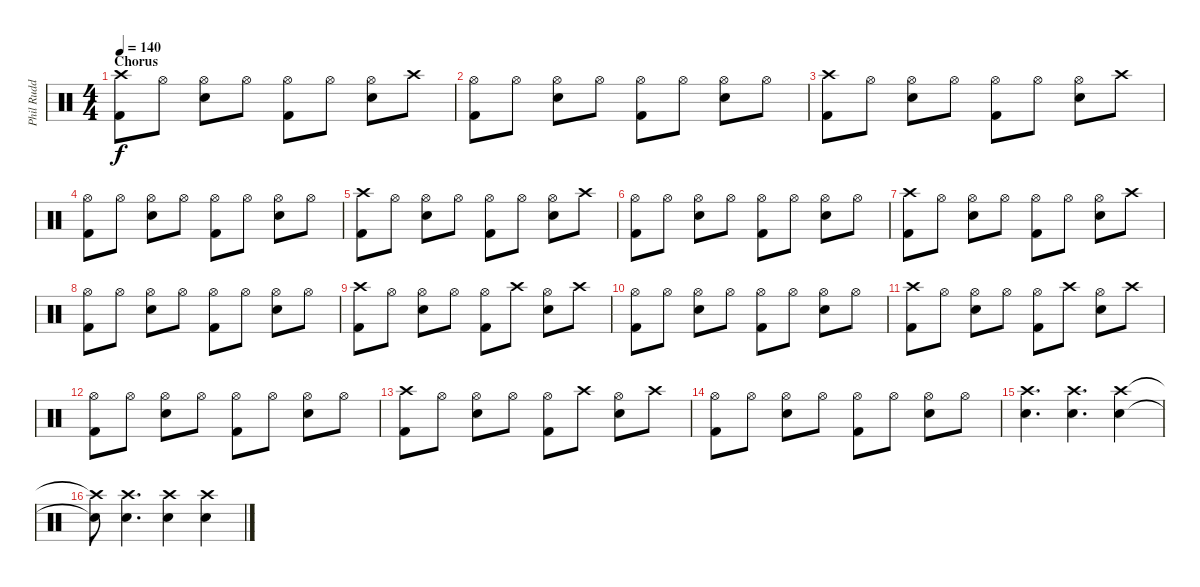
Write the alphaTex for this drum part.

\track ("Phil Rudd" "Phil Rudd") {instrument percussion}
\staff {score}
\articulation defaults
\ts (4 4)
\section ("" "Chorus")
\tempo 140
\clef neutral
\ks c
("Crash high (hit)" "Kick (hit) 2").8{dy f} "Hi-Hat (open)".8 ("Hi-Hat (open)" "Snare (hit) 2").8 "Hi-Hat (open)".8 ("Hi-Hat (open)" "Kick (hit) 2").8 "Hi-Hat (open)".8 ("Hi-Hat (open)" "Snare (hit) 2").8 "Crash high (hit)".8 |
("Hi-Hat (open)" "Kick (hit) 2").8 "Hi-Hat (open)".8 ("Hi-Hat (open)" "Snare (hit) 2").8 "Hi-Hat (open)".8 ("Hi-Hat (open)" "Kick (hit) 2").8 "Hi-Hat (open)".8 ("Hi-Hat (open)" "Snare (hit) 2").8 "Hi-Hat (open)".8 |
("Crash high (hit)" "Kick (hit) 2").8 "Hi-Hat (open)".8 ("Hi-Hat (open)" "Snare (hit) 2").8 "Hi-Hat (open)".8 ("Hi-Hat (open)" "Kick (hit) 2").8 "Hi-Hat (open)".8 ("Hi-Hat (open)" "Snare (hit) 2").8 "Crash high (hit)".8 |
("Hi-Hat (open)" "Kick (hit) 2").8 "Hi-Hat (open)".8 ("Hi-Hat (open)" "Snare (hit) 2").8 "Hi-Hat (open)".8 ("Hi-Hat (open)" "Kick (hit) 2").8 "Hi-Hat (open)".8 ("Hi-Hat (open)" "Snare (hit) 2").8 "Hi-Hat (open)".8 |
("Crash high (hit)" "Kick (hit) 2").8 "Hi-Hat (open)".8 ("Hi-Hat (open)" "Snare (hit) 2").8 "Hi-Hat (open)".8 ("Hi-Hat (open)" "Kick (hit) 2").8 "Hi-Hat (open)".8 ("Hi-Hat (open)" "Snare (hit) 2").8 "Crash high (hit)".8 |
("Hi-Hat (open)" "Kick (hit) 2").8 "Hi-Hat (open)".8 ("Hi-Hat (open)" "Snare (hit) 2").8 "Hi-Hat (open)".8 ("Hi-Hat (open)" "Kick (hit) 2").8 "Hi-Hat (open)".8 ("Hi-Hat (open)" "Snare (hit) 2").8 "Hi-Hat (open)".8 |
("Crash high (hit)" "Kick (hit) 2").8 "Hi-Hat (open)".8 ("Hi-Hat (open)" "Snare (hit) 2").8 "Hi-Hat (open)".8 ("Hi-Hat (open)" "Kick (hit) 2").8 "Hi-Hat (open)".8 ("Hi-Hat (open)" "Snare (hit) 2").8 "Crash high (hit)".8 |
("Hi-Hat (open)" "Kick (hit) 2").8 "Hi-Hat (open)".8 ("Hi-Hat (open)" "Snare (hit) 2").8 "Hi-Hat (open)".8 ("Hi-Hat (open)" "Kick (hit) 2").8 "Hi-Hat (open)".8 ("Hi-Hat (open)" "Snare (hit) 2").8 "Hi-Hat (open)".8 |
("Crash high (hit)" "Kick (hit) 2").8 "Hi-Hat (open)".8 ("Hi-Hat (open)" "Snare (hit) 2").8 "Hi-Hat (open)".8 ("Hi-Hat (open)" "Kick (hit) 2").8 "Crash high (hit)".8 ("Hi-Hat (open)" "Snare (hit) 2").8 "Crash high (hit)".8 |
("Hi-Hat (open)" "Kick (hit) 2").8 "Hi-Hat (open)".8 ("Hi-Hat (open)" "Snare (hit) 2").8 "Hi-Hat (open)".8 ("Hi-Hat (open)" "Kick (hit) 2").8 "Hi-Hat (open)".8 ("Hi-Hat (open)" "Snare (hit) 2").8 "Hi-Hat (open)".8 |
("Crash high (hit)" "Kick (hit) 2").8 "Hi-Hat (open)".8 ("Hi-Hat (open)" "Snare (hit) 2").8 "Hi-Hat (open)".8 ("Hi-Hat (open)" "Kick (hit) 2").8 "Crash high (hit)".8 ("Hi-Hat (open)" "Snare (hit) 2").8 "Crash high (hit)".8 |
("Hi-Hat (open)" "Kick (hit) 2").8 "Hi-Hat (open)".8 ("Hi-Hat (open)" "Snare (hit) 2").8 "Hi-Hat (open)".8 ("Hi-Hat (open)" "Kick (hit) 2").8 "Hi-Hat (open)".8 ("Hi-Hat (open)" "Snare (hit) 2").8 "Hi-Hat (open)".8 |
("Crash high (hit)" "Kick (hit) 2").8 "Hi-Hat (open)".8 ("Hi-Hat (open)" "Snare (hit) 2").8 "Hi-Hat (open)".8 ("Hi-Hat (open)" "Kick (hit) 2").8 "Crash high (hit)".8 ("Hi-Hat (open)" "Snare (hit) 2").8 "Crash high (hit)".8 |
("Hi-Hat (open)" "Kick (hit) 2").8 "Hi-Hat (open)".8 ("Hi-Hat (open)" "Snare (hit) 2").8 "Hi-Hat (open)".8 ("Hi-Hat (open)" "Kick (hit) 2").8 "Hi-Hat (open)".8 ("Hi-Hat (open)" "Snare (hit) 2").8 "Hi-Hat (open)".8 |
("Crash high (hit)" "Snare (hit) 2").4{d} ("Crash high (hit)" "Snare (hit) 2").4{d} ("Crash high (hit)" "Snare (hit) 2").4 |
("Crash high (hit)"{t} "Snare (hit) 2"{t}).8 ("Crash high (hit)" "Snare (hit) 2").4{d} ("Crash high (hit)" "Snare (hit) 2").4 ("Crash high (hit)" "Snare (hit) 2").4
